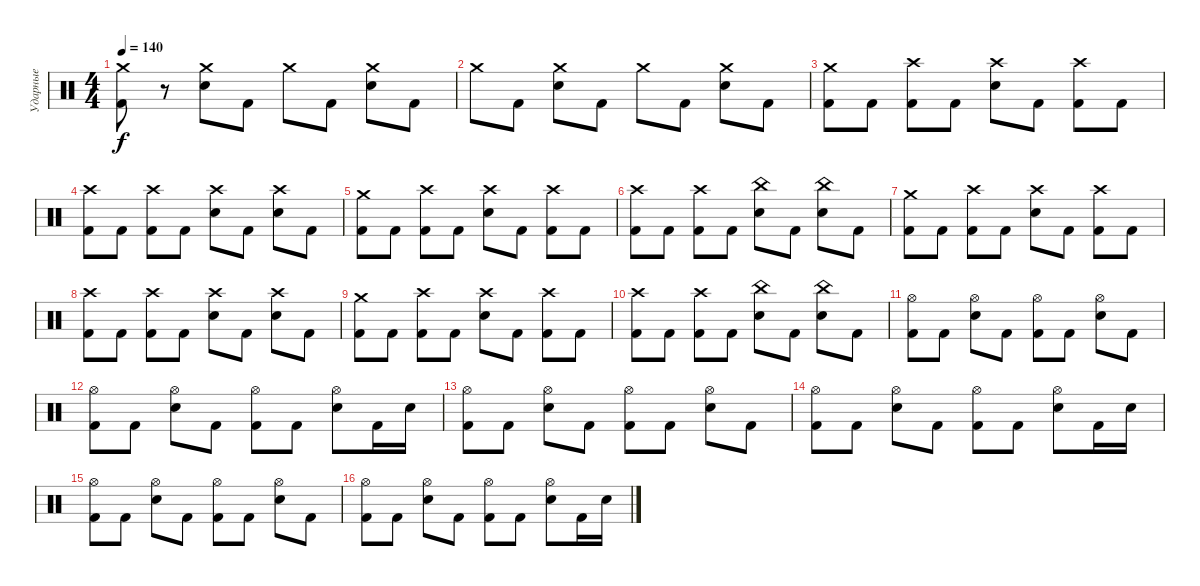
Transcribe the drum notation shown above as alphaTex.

\track ("Ударные" "Ударные") {instrument percussion}
\staff {score}
\articulation defaults
\ts (4 4)
\tempo 140
\clef neutral
\ks c
("Crash medium (hit)" "Kick (hit) 2").8{dy f} r.8 ("Crash medium (hit)" "Electric Snare (hit)").8 "Kick (hit) 2".8 "Crash medium (hit)".8 "Kick (hit) 2".8 ("Crash medium (hit)" "Electric Snare (hit)").8 "Kick (hit) 2".8 |
"Crash medium (hit)".8 "Kick (hit) 2".8 ("Crash medium (hit)" "Electric Snare (hit)").8 "Kick (hit) 2".8 "Crash medium (hit)".8 "Kick (hit) 2".8 ("Crash medium (hit)" "Electric Snare (hit)").8 "Kick (hit) 2".8 |
("Crash medium (hit)" "Kick (hit) 2").8 "Kick (hit) 2".8 ("Crash high (hit)" "Kick (hit) 2").8 "Kick (hit) 2".8 ("Crash high (hit)" "Electric Snare (hit)").8 "Kick (hit) 2".8 ("Crash high (hit)" "Kick (hit) 2").8 "Kick (hit) 2".8 |
("Crash high (hit)" "Kick (hit) 2").8 "Kick (hit) 2".8 ("Crash high (hit)" "Kick (hit) 2").8 "Kick (hit) 2".8 ("Crash high (hit)" "Electric Snare (hit)").8 "Kick (hit) 2".8 ("Crash high (hit)" "Electric Snare (hit)").8 "Kick (hit) 2".8 |
("Crash medium (hit)" "Kick (hit) 2").8 "Kick (hit) 2".8 ("Crash high (hit)" "Kick (hit) 2").8 "Kick (hit) 2".8 ("Crash high (hit)" "Electric Snare (hit)").8 "Kick (hit) 2".8 ("Crash high (hit)" "Kick (hit) 2").8 "Kick (hit) 2".8 |
("Crash high (hit)" "Kick (hit) 2").8 "Kick (hit) 2".8 ("Crash high (hit)" "Kick (hit) 2").8 "Kick (hit) 2".8 ("China (hit)" "Electric Snare (hit)").8 "Kick (hit) 2".8 ("China (hit)" "Electric Snare (hit)").8 "Kick (hit) 2".8 |
("Crash medium (hit)" "Kick (hit) 2").8 "Kick (hit) 2".8 ("Crash high (hit)" "Kick (hit) 2").8 "Kick (hit) 2".8 ("Crash high (hit)" "Electric Snare (hit)").8 "Kick (hit) 2".8 ("Crash high (hit)" "Kick (hit) 2").8 "Kick (hit) 2".8 |
("Crash high (hit)" "Kick (hit) 2").8 "Kick (hit) 2".8 ("Crash high (hit)" "Kick (hit) 2").8 "Kick (hit) 2".8 ("Crash high (hit)" "Electric Snare (hit)").8 "Kick (hit) 2".8 ("Crash high (hit)" "Electric Snare (hit)").8 "Kick (hit) 2".8 |
("Crash medium (hit)" "Kick (hit) 2").8 "Kick (hit) 2".8 ("Crash high (hit)" "Kick (hit) 2").8 "Kick (hit) 2".8 ("Crash high (hit)" "Electric Snare (hit)").8 "Kick (hit) 2".8 ("Crash high (hit)" "Kick (hit) 2").8 "Kick (hit) 2".8 |
("Crash high (hit)" "Kick (hit) 2").8 "Kick (hit) 2".8 ("Crash high (hit)" "Kick (hit) 2").8 "Kick (hit) 2".8 ("China (hit)" "Electric Snare (hit)").8 "Kick (hit) 2".8 ("China (hit)" "Electric Snare (hit)").8 "Kick (hit) 2".8 |
("Hi-Hat (open)" "Kick (hit) 2").8 "Kick (hit) 2".8 ("Hi-Hat (open)" "Electric Snare (hit)").8 "Kick (hit) 2".8 ("Hi-Hat (open)" "Kick (hit) 2").8 "Kick (hit) 2".8 ("Hi-Hat (open)" "Electric Snare (hit)").8 "Kick (hit) 2".8 |
("Hi-Hat (open)" "Kick (hit) 2").8 "Kick (hit) 2".8 ("Hi-Hat (open)" "Electric Snare (hit)").8 "Kick (hit) 2".8 ("Hi-Hat (open)" "Kick (hit) 2").8 "Kick (hit) 2".8 ("Hi-Hat (open)" "Electric Snare (hit)").8 "Kick (hit) 2".16 "Electric Snare (hit)".16 |
("Hi-Hat (open)" "Kick (hit) 2").8 "Kick (hit) 2".8 ("Hi-Hat (open)" "Electric Snare (hit)").8 "Kick (hit) 2".8 ("Hi-Hat (open)" "Kick (hit) 2").8 "Kick (hit) 2".8 ("Hi-Hat (open)" "Electric Snare (hit)").8 "Kick (hit) 2".8 |
("Hi-Hat (open)" "Kick (hit) 2").8 "Kick (hit) 2".8 ("Hi-Hat (open)" "Electric Snare (hit)").8 "Kick (hit) 2".8 ("Hi-Hat (open)" "Kick (hit) 2").8 "Kick (hit) 2".8 ("Hi-Hat (open)" "Electric Snare (hit)").8 "Kick (hit) 2".16 "Electric Snare (hit)".16 |
("Hi-Hat (open)" "Kick (hit) 2").8 "Kick (hit) 2".8 ("Hi-Hat (open)" "Electric Snare (hit)").8 "Kick (hit) 2".8 ("Hi-Hat (open)" "Kick (hit) 2").8 "Kick (hit) 2".8 ("Hi-Hat (open)" "Electric Snare (hit)").8 "Kick (hit) 2".8 |
("Hi-Hat (open)" "Kick (hit) 2").8 "Kick (hit) 2".8 ("Hi-Hat (open)" "Electric Snare (hit)").8 "Kick (hit) 2".8 ("Hi-Hat (open)" "Kick (hit) 2").8 "Kick (hit) 2".8 ("Hi-Hat (open)" "Electric Snare (hit)").8 "Kick (hit) 2".16 "Electric Snare (hit)".16
